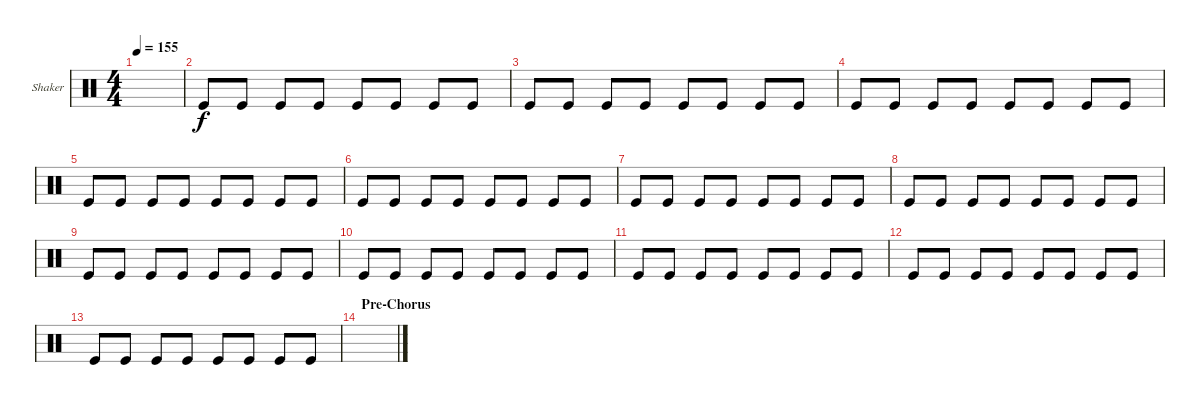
\defaultSystemsLayout 4
\bracketExtendMode groupsimilarinstruments
\firstSystemTrackNameOrientation horizontal
\otherSystemsTrackNameOrientation horizontal
\track ("Shaker" "Shaker") {instrument percussion}
\staff {score}
\articulation defaults
\ts (4 4)
\tempo 155
\clef neutral
\scale
0.333333
\ks c
|
\scale
0.333333 "Kick (hit)".8 "Kick (hit)".8 "Kick (hit)".8 "Kick (hit)".8 "Kick (hit)".8 "Kick (hit)".8 "Kick (hit)".8 "Kick (hit)".8 |
\scale
0.333333 "Kick (hit)".8 "Kick (hit)".8 "Kick (hit)".8 "Kick (hit)".8 "Kick (hit)".8 "Kick (hit)".8 "Kick (hit)".8 "Kick (hit)".8 |
\scale
0.333333 "Kick (hit)".8 "Kick (hit)".8 "Kick (hit)".8 "Kick (hit)".8 "Kick (hit)".8 "Kick (hit)".8 "Kick (hit)".8 "Kick (hit)".8 |
\scale
0.333333 "Kick (hit)".8 "Kick (hit)".8 "Kick (hit)".8 "Kick (hit)".8 "Kick (hit)".8 "Kick (hit)".8 "Kick (hit)".8 "Kick (hit)".8 |
\scale
0.333333 "Kick (hit)".8 "Kick (hit)".8 "Kick (hit)".8 "Kick (hit)".8 "Kick (hit)".8 "Kick (hit)".8 "Kick (hit)".8 "Kick (hit)".8 |
\scale
0.333333 "Kick (hit)".8 "Kick (hit)".8 "Kick (hit)".8 "Kick (hit)".8 "Kick (hit)".8 "Kick (hit)".8 "Kick (hit)".8 "Kick (hit)".8 |
\scale
0.333333 "Kick (hit)".8 "Kick (hit)".8 "Kick (hit)".8 "Kick (hit)".8 "Kick (hit)".8 "Kick (hit)".8 "Kick (hit)".8 "Kick (hit)".8 |
\scale
0.333333 "Kick (hit)".8 "Kick (hit)".8 "Kick (hit)".8 "Kick (hit)".8 "Kick (hit)".8 "Kick (hit)".8 "Kick (hit)".8 "Kick (hit)".8 |
\scale
0.333333 "Kick (hit)".8 "Kick (hit)".8 "Kick (hit)".8 "Kick (hit)".8 "Kick (hit)".8 "Kick (hit)".8 "Kick (hit)".8 "Kick (hit)".8 |
\scale
0.333333 "Kick (hit)".8 "Kick (hit)".8 "Kick (hit)".8 "Kick (hit)".8 "Kick (hit)".8 "Kick (hit)".8 "Kick (hit)".8 "Kick (hit)".8 |
\scale
0.333333 "Kick (hit)".8 "Kick (hit)".8 "Kick (hit)".8 "Kick (hit)".8 "Kick (hit)".8 "Kick (hit)".8 "Kick (hit)".8 "Kick (hit)".8 |
\scale
0.333333 "Kick (hit)".8 "Kick (hit)".8 "Kick (hit)".8 "Kick (hit)".8 "Kick (hit)".8 "Kick (hit)".8 "Kick (hit)".8 "Kick (hit)".8 |
\section ("" "Pre-Chorus")
\scale
0.333333 |
\scale
0.333333 |
\scale
0.333333
